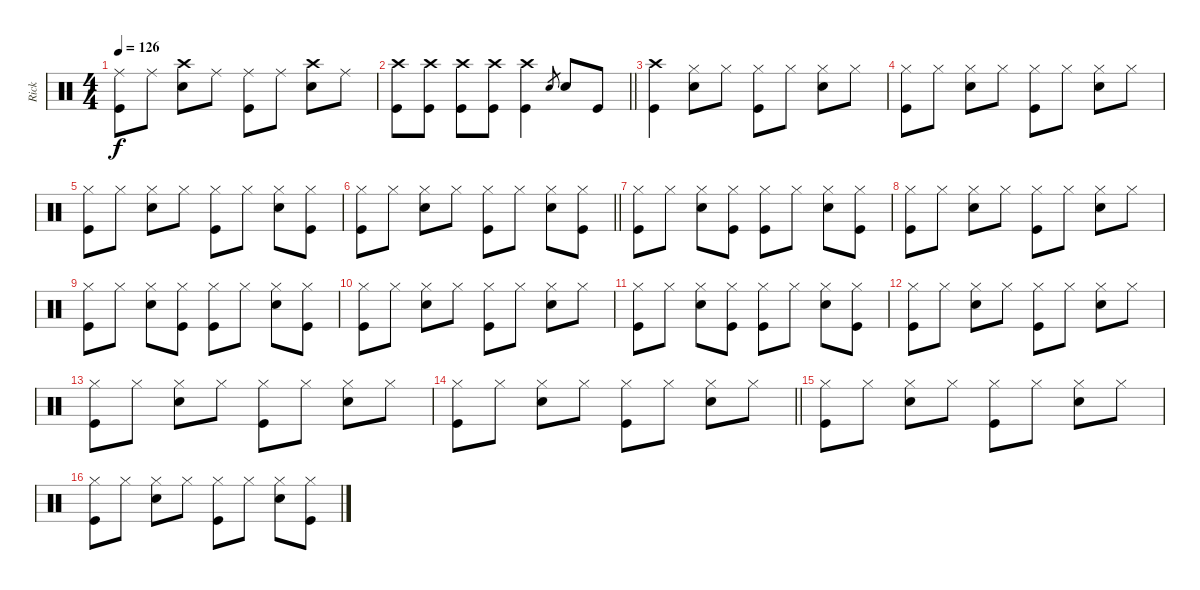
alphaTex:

\track ("Rick" "Rick") {instrument percussion}
\staff {score}
\articulation defaults
\ts (4 4)
\tempo 126
\clef neutral
\ks aminor
("Ride (middle)" "Kick (hit)").8{dy f} "Ride (middle)".8 ("Crash high (hit)" "Snare (hit) 2").8 "Ride (middle)".8 ("Ride (middle)" "Kick (hit)").8 "Ride (middle)".8 ("Crash high (hit)" "Snare (hit) 2").8 "Ride (middle)".8 |
\barLineRight lightlight
("Crash high (hit)" "Kick (hit)").8 ("Crash high (hit)" "Kick (hit)").8 ("Crash high (hit)" "Kick (hit)").8 ("Crash high (hit)" "Kick (hit)").8 ("Crash high (hit)" "Kick (hit)").4 "Snare (hit) 2".8{gr} "Snare (hit) 2".8 "Kick (hit)".8 |
("Crash high (hit)" "Kick (hit)").4 ("Hi-Hat (closed)" "Snare (hit) 2").8 "Hi-Hat (closed)".8 ("Hi-Hat (closed)" "Kick (hit)").8 "Hi-Hat (closed)".8 ("Hi-Hat (closed)" "Snare (hit) 2").8 "Hi-Hat (closed)".8 |
("Hi-Hat (closed)" "Kick (hit)").8 "Hi-Hat (closed)".8 ("Hi-Hat (closed)" "Snare (hit) 2").8 "Hi-Hat (closed)".8 ("Hi-Hat (closed)" "Kick (hit)").8 "Hi-Hat (closed)".8 ("Hi-Hat (closed)" "Snare (hit) 2").8 "Hi-Hat (closed)".8 |
("Hi-Hat (closed)" "Kick (hit)").8 "Hi-Hat (closed)".8 ("Hi-Hat (closed)" "Snare (hit) 2").8 "Hi-Hat (closed)".8 ("Hi-Hat (closed)" "Kick (hit)").8 "Hi-Hat (closed)".8 ("Hi-Hat (closed)" "Snare (hit) 2").8 ("Hi-Hat (closed)" "Kick (hit)").8 |
\barLineRight lightlight
("Hi-Hat (closed)" "Kick (hit)").8 "Hi-Hat (closed)".8 ("Hi-Hat (closed)" "Snare (hit) 2").8 "Hi-Hat (closed)".8 ("Hi-Hat (closed)" "Kick (hit)").8 "Hi-Hat (closed)".8 ("Hi-Hat (closed)" "Snare (hit) 2").8 ("Hi-Hat (closed)" "Kick (hit)").8 |
("Hi-Hat (closed)" "Kick (hit)").8 "Hi-Hat (closed)".8 ("Hi-Hat (closed)" "Snare (hit) 2").8 ("Hi-Hat (closed)" "Kick (hit)").8 ("Hi-Hat (closed)" "Kick (hit)").8 "Hi-Hat (closed)".8 ("Hi-Hat (closed)" "Snare (hit) 2").8 ("Hi-Hat (closed)" "Kick (hit)").8 |
("Hi-Hat (closed)" "Kick (hit)").8 "Hi-Hat (closed)".8 ("Hi-Hat (closed)" "Snare (hit) 2").8 "Hi-Hat (closed)".8 ("Hi-Hat (closed)" "Kick (hit)").8 "Hi-Hat (closed)".8 ("Hi-Hat (closed)" "Snare (hit) 2").8 "Hi-Hat (closed)".8 |
("Hi-Hat (closed)" "Kick (hit)").8 "Hi-Hat (closed)".8 ("Hi-Hat (closed)" "Snare (hit) 2").8 ("Hi-Hat (closed)" "Kick (hit)").8 ("Hi-Hat (closed)" "Kick (hit)").8 "Hi-Hat (closed)".8 ("Hi-Hat (closed)" "Snare (hit) 2").8 ("Hi-Hat (closed)" "Kick (hit)").8 |
("Hi-Hat (closed)" "Kick (hit)").8 "Hi-Hat (closed)".8 ("Hi-Hat (closed)" "Snare (hit) 2").8 "Hi-Hat (closed)".8 ("Hi-Hat (closed)" "Kick (hit)").8 "Hi-Hat (closed)".8 ("Hi-Hat (closed)" "Snare (hit) 2").8 "Hi-Hat (closed)".8 |
("Hi-Hat (closed)" "Kick (hit)").8 "Hi-Hat (closed)".8 ("Hi-Hat (closed)" "Snare (hit) 2").8 ("Hi-Hat (closed)" "Kick (hit)").8 ("Hi-Hat (closed)" "Kick (hit)").8 "Hi-Hat (closed)".8 ("Hi-Hat (closed)" "Snare (hit) 2").8 ("Hi-Hat (closed)" "Kick (hit)").8 |
("Hi-Hat (closed)" "Kick (hit)").8 "Hi-Hat (closed)".8 ("Hi-Hat (closed)" "Snare (hit) 2").8 "Hi-Hat (closed)".8 ("Hi-Hat (closed)" "Kick (hit)").8 "Hi-Hat (closed)".8 ("Hi-Hat (closed)" "Snare (hit) 2").8 "Hi-Hat (closed)".8 |
("Hi-Hat (closed)" "Kick (hit)").8 "Hi-Hat (closed)".8 ("Hi-Hat (closed)" "Snare (hit) 2").8 "Hi-Hat (closed)".8 ("Hi-Hat (closed)" "Kick (hit)").8 "Hi-Hat (closed)".8 ("Hi-Hat (closed)" "Snare (hit) 2").8 "Hi-Hat (closed)".8 |
\barLineRight lightlight
("Hi-Hat (closed)" "Kick (hit)").8 "Hi-Hat (closed)".8 ("Hi-Hat (closed)" "Snare (hit) 2").8 "Hi-Hat (closed)".8 ("Hi-Hat (closed)" "Kick (hit)").8 "Hi-Hat (closed)".8 ("Hi-Hat (closed)" "Snare (hit) 2").8 "Hi-Hat (closed)".8 |
("Hi-Hat (closed)" "Kick (hit)").8 "Hi-Hat (closed)".8 ("Hi-Hat (closed)" "Snare (hit) 2").8 "Hi-Hat (closed)".8 ("Hi-Hat (closed)" "Kick (hit)").8 "Hi-Hat (closed)".8 ("Hi-Hat (closed)" "Snare (hit) 2").8 "Hi-Hat (closed)".8 |
("Hi-Hat (closed)" "Kick (hit)").8 "Hi-Hat (closed)".8 ("Hi-Hat (closed)" "Snare (hit) 2").8 "Hi-Hat (closed)".8 ("Hi-Hat (closed)" "Kick (hit)").8 "Hi-Hat (closed)".8 ("Hi-Hat (closed)" "Snare (hit) 2").8 ("Hi-Hat (closed)" "Kick (hit)").8
